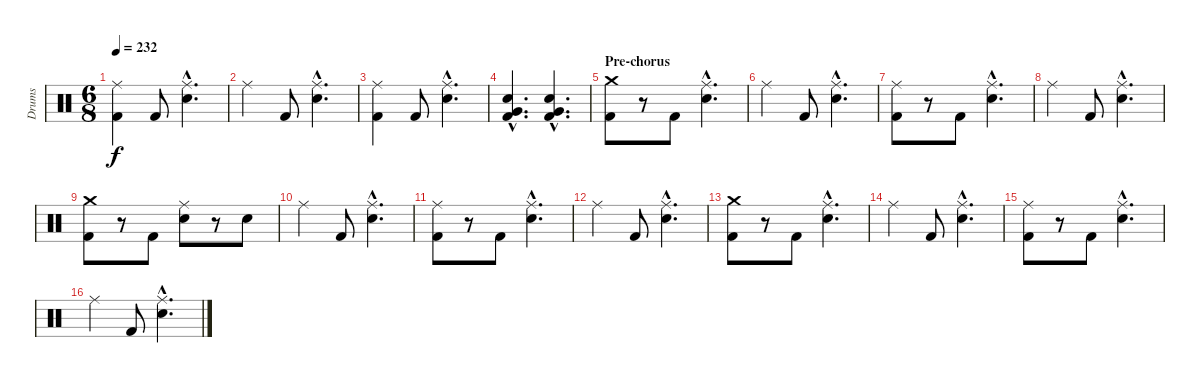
\track ("Drums" "Drums") {instrument percussion}
\staff {score}
\articulation defaults
\ts (6 8)
\tempo 232
\clef neutral
\ks c
("Ride (middle)" "Kick (hit) 2").4{dy f} "Kick (hit) 2".8 ("Ride (middle)"{hac} "Snare (hit) 2"{hac}).4{d} |
"Ride (middle)".4 "Kick (hit) 2".8 ("Ride (middle)"{hac} "Snare (hit) 2"{hac}).4{d} |
("Ride (middle)" "Kick (hit) 2").4 "Kick (hit) 2".8 ("Ride (middle)"{hac} "Snare (hit) 2"{hac}).4{d} |
("Very Low Tom (hit)"{hac} "Snare (hit) 2"{hac} "Kick (hit) 2"{hac}).4{d} ("Very Low Tom (hit)"{hac} "Snare (hit) 2"{hac} "Kick (hit) 2"{hac}).4{d} |
\section ("" "Pre-chorus")
("Crash medium (hit)" "Kick (hit) 2").8 r.8 "Kick (hit) 2".8 ("Ride (middle)"{hac} "Snare (hit) 2"{hac}).4{d} |
"Ride (middle)".4 "Kick (hit) 2".8 ("Ride (middle)"{hac} "Snare (hit) 2"{hac}).4{d} |
("Ride (middle)" "Kick (hit) 2").8 r.8 "Kick (hit) 2".8 ("Ride (middle)"{hac} "Snare (hit) 2"{hac}).4{d} |
"Ride (middle)".4 "Kick (hit) 2".8 ("Ride (middle)"{hac} "Snare (hit) 2"{hac}).4{d} |
("Crash medium (hit)" "Kick (hit) 2").8 r.8 "Kick (hit) 2".8 ("Ride (middle)" "Snare (hit) 2").8 r.8 "Snare (hit) 2".8 |
"Ride (middle)".4 "Kick (hit) 2".8 ("Ride (middle)"{hac} "Snare (hit) 2"{hac}).4{d} |
("Ride (middle)" "Kick (hit) 2").8 r.8 "Kick (hit) 2".8 ("Ride (middle)"{hac} "Snare (hit) 2"{hac}).4{d} |
"Ride (middle)".4 "Kick (hit) 2".8 ("Ride (middle)"{hac} "Snare (hit) 2"{hac}).4{d} |
("Crash medium (hit)" "Kick (hit) 2").8 r.8 "Kick (hit) 2".8 ("Ride (middle)"{hac} "Snare (hit) 2"{hac}).4{d} |
"Ride (middle)".4 "Kick (hit) 2".8 ("Ride (middle)"{hac} "Snare (hit) 2"{hac}).4{d} |
("Ride (middle)" "Kick (hit) 2").8 r.8 "Kick (hit) 2".8 ("Ride (middle)"{hac} "Snare (hit) 2"{hac}).4{d} |
"Ride (middle)".4 "Kick (hit) 2".8 ("Ride (middle)"{hac} "Snare (hit) 2"{hac}).4{d}
